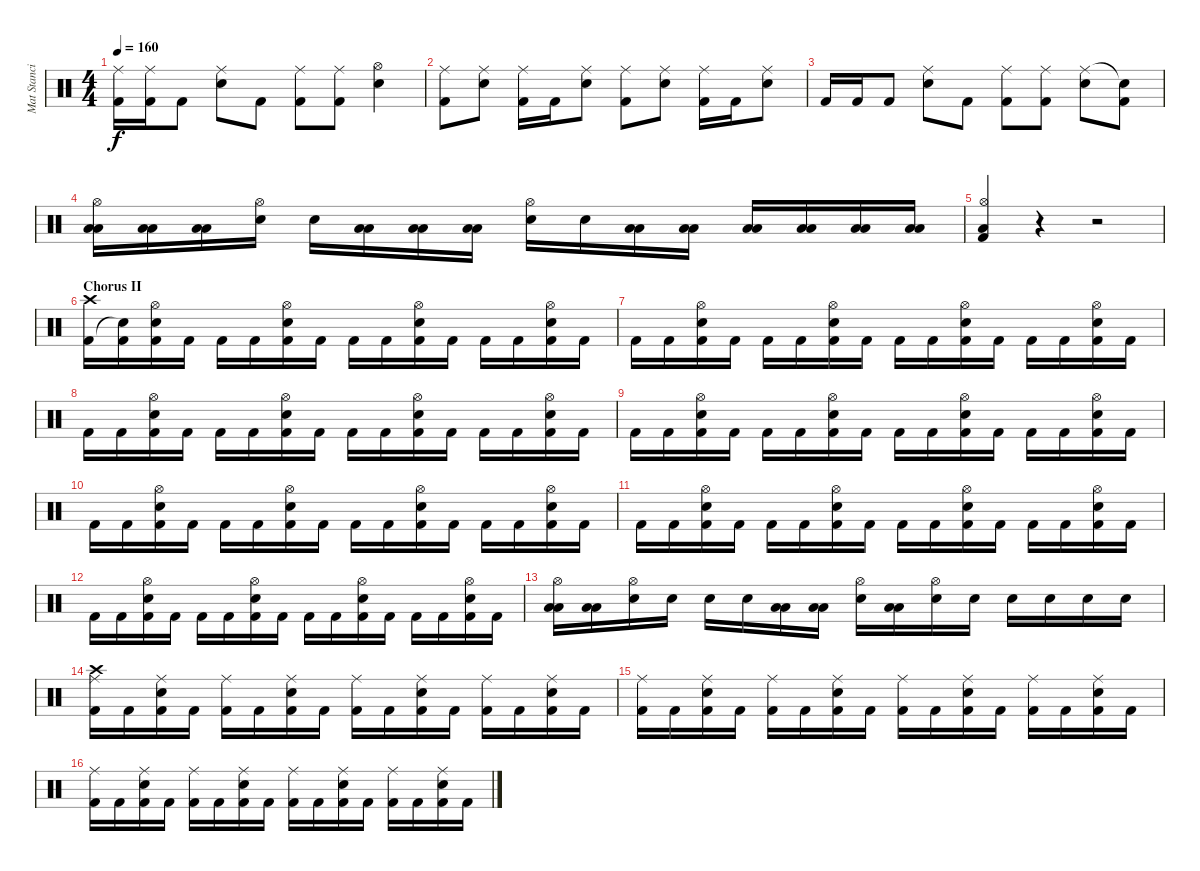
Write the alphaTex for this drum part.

\track ("Mat Stancioiu" "Mat Stanci") {instrument percussion}
\staff {score}
\articulation defaults
\ts (4 4)
\tempo 160
\clef neutral
\ks c
("Kick (hit) 2" "Ride (middle)").16{dy f} ("Kick (hit) 2" "Ride (middle)").16 "Kick (hit) 2".8 ("Electric Snare (hit)" "Ride (middle)").8 "Kick (hit) 2".8 ("Kick (hit) 2" "Ride (middle)").8 ("Kick (hit) 2" "Ride (middle)").8 ("Electric Snare (hit)" "Hi-Hat (open)").4 |
("Kick (hit) 2" "Ride (middle)").8 ("Electric Snare (hit)" "Ride (middle)").8 ("Kick (hit) 2" "Ride (middle)").16 "Kick (hit) 2".16 ("Electric Snare (hit)" "Ride (middle)").8 ("Kick (hit) 2" "Ride (middle)").8 ("Electric Snare (hit)" "Ride (middle)").8 ("Kick (hit) 2" "Ride (middle)").16 "Kick (hit) 2".16 ("Electric Snare (hit)" "Ride (middle)").8 |
"Kick (hit) 2".16 "Kick (hit) 2".16 "Kick (hit) 2".8 ("Electric Snare (hit)" "Ride (middle)").8 "Kick (hit) 2".8 ("Kick (hit) 2" "Ride (middle)").8 ("Kick (hit) 2" "Ride (middle)").8 ("Electric Snare (hit)" "Ride (middle)").8 ("Kick (hit) 2" "Snare (hit)"{t}).8 |
("Low Tom (hit)" "Low Tom (hit)" "Hi-Hat (open)").16 ("Low Tom (hit)" "Low Tom (hit)").16 ("Low Tom (hit)" "Low Tom (hit)").16 ("Electric Snare (hit)" "Hi-Hat (open)").16 "Electric Snare (hit)".16 ("Low Tom (hit)" "Low Tom (hit)").16 ("Low Tom (hit)" "Low Tom (hit)").16 ("Low Tom (hit)" "Low Tom (hit)").16 ("Electric Snare (hit)" "Hi-Hat (open)").16 "Electric Snare (hit)".16 ("Low Tom (hit)" "Low Tom (hit)").16 ("Low Tom (hit)" "Low Tom (hit)").16 ("Low Floor Tom (hit)" "Low Floor Tom (hit)").16 ("Low Floor Tom (hit)" "Low Floor Tom (hit)").16 ("Low Floor Tom (hit)" "Low Floor Tom (hit)").16 ("Low Floor Tom (hit)" "Low Floor Tom (hit)").16 |
("Kick (hit) 2" "Low Floor Tom (hit)" "Hi-Hat (open)").4 r.4 r.2 |
\section ("" "Chorus II")
("Crash high (hit)" "Kick (hit) 2").16 ("Kick (hit) 2" "Snare (hit)"{t}).16 ("Electric Snare (hit)" "Kick (hit) 2" "Hi-Hat (open)").16 "Kick (hit) 2".16 "Kick (hit) 2".16 "Kick (hit) 2".16 ("Electric Snare (hit)" "Kick (hit) 2" "Hi-Hat (open)").16 "Kick (hit) 2".16 "Kick (hit) 2".16 "Kick (hit) 2".16 ("Electric Snare (hit)" "Kick (hit) 2" "Hi-Hat (open)").16 "Kick (hit) 2".16 "Kick (hit) 2".16 "Kick (hit) 2".16 ("Electric Snare (hit)" "Kick (hit) 2" "Hi-Hat (open)").16 "Kick (hit) 2".16 |
"Kick (hit) 2".16 "Kick (hit) 2".16 ("Electric Snare (hit)" "Kick (hit) 2" "Hi-Hat (open)").16 "Kick (hit) 2".16 "Kick (hit) 2".16 "Kick (hit) 2".16 ("Electric Snare (hit)" "Kick (hit) 2" "Hi-Hat (open)").16 "Kick (hit) 2".16 "Kick (hit) 2".16 "Kick (hit) 2".16 ("Electric Snare (hit)" "Kick (hit) 2" "Hi-Hat (open)").16 "Kick (hit) 2".16 "Kick (hit) 2".16 "Kick (hit) 2".16 ("Electric Snare (hit)" "Kick (hit) 2" "Hi-Hat (open)").16 "Kick (hit) 2".16 |
"Kick (hit) 2".16 "Kick (hit) 2".16 ("Electric Snare (hit)" "Kick (hit) 2" "Hi-Hat (open)").16 "Kick (hit) 2".16 "Kick (hit) 2".16 "Kick (hit) 2".16 ("Electric Snare (hit)" "Kick (hit) 2" "Hi-Hat (open)").16 "Kick (hit) 2".16 "Kick (hit) 2".16 "Kick (hit) 2".16 ("Electric Snare (hit)" "Kick (hit) 2" "Hi-Hat (open)").16 "Kick (hit) 2".16 "Kick (hit) 2".16 "Kick (hit) 2".16 ("Electric Snare (hit)" "Kick (hit) 2" "Hi-Hat (open)").16 "Kick (hit) 2".16 |
"Kick (hit) 2".16 "Kick (hit) 2".16 ("Electric Snare (hit)" "Kick (hit) 2" "Hi-Hat (open)").16 "Kick (hit) 2".16 "Kick (hit) 2".16 "Kick (hit) 2".16 ("Electric Snare (hit)" "Kick (hit) 2" "Hi-Hat (open)").16 "Kick (hit) 2".16 "Kick (hit) 2".16 "Kick (hit) 2".16 ("Electric Snare (hit)" "Kick (hit) 2" "Hi-Hat (open)").16 "Kick (hit) 2".16 "Kick (hit) 2".16 "Kick (hit) 2".16 ("Electric Snare (hit)" "Kick (hit) 2" "Hi-Hat (open)").16 "Kick (hit) 2".16 |
"Kick (hit) 2".16 "Kick (hit) 2".16 ("Electric Snare (hit)" "Kick (hit) 2" "Hi-Hat (open)").16 "Kick (hit) 2".16 "Kick (hit) 2".16 "Kick (hit) 2".16 ("Electric Snare (hit)" "Kick (hit) 2" "Hi-Hat (open)").16 "Kick (hit) 2".16 "Kick (hit) 2".16 "Kick (hit) 2".16 ("Electric Snare (hit)" "Kick (hit) 2" "Hi-Hat (open)").16 "Kick (hit) 2".16 "Kick (hit) 2".16 "Kick (hit) 2".16 ("Electric Snare (hit)" "Kick (hit) 2" "Hi-Hat (open)").16 "Kick (hit) 2".16 |
"Kick (hit) 2".16 "Kick (hit) 2".16 ("Electric Snare (hit)" "Kick (hit) 2" "Hi-Hat (open)").16 "Kick (hit) 2".16 "Kick (hit) 2".16 "Kick (hit) 2".16 ("Electric Snare (hit)" "Kick (hit) 2" "Hi-Hat (open)").16 "Kick (hit) 2".16 "Kick (hit) 2".16 "Kick (hit) 2".16 ("Electric Snare (hit)" "Kick (hit) 2" "Hi-Hat (open)").16 "Kick (hit) 2".16 "Kick (hit) 2".16 "Kick (hit) 2".16 ("Electric Snare (hit)" "Kick (hit) 2" "Hi-Hat (open)").16 "Kick (hit) 2".16 |
"Kick (hit) 2".16 "Kick (hit) 2".16 ("Electric Snare (hit)" "Kick (hit) 2" "Hi-Hat (open)").16 "Kick (hit) 2".16 "Kick (hit) 2".16 "Kick (hit) 2".16 ("Electric Snare (hit)" "Kick (hit) 2" "Hi-Hat (open)").16 "Kick (hit) 2".16 "Kick (hit) 2".16 "Kick (hit) 2".16 ("Electric Snare (hit)" "Kick (hit) 2" "Hi-Hat (open)").16 "Kick (hit) 2".16 "Kick (hit) 2".16 "Kick (hit) 2".16 ("Electric Snare (hit)" "Kick (hit) 2" "Hi-Hat (open)").16 "Kick (hit) 2".16 |
("Low Tom (hit)" "Low Tom (hit)" "Hi-Hat (open)").16 ("Low Tom (hit)" "Low Tom (hit)").16 ("Electric Snare (hit)" "Hi-Hat (open)").16 "Electric Snare (hit)".16 "Electric Snare (hit)".16 "Electric Snare (hit)".16 ("Low Tom (hit)" "Low Tom (hit)").16 ("Low Tom (hit)" "Low Tom (hit)").16 ("Electric Snare (hit)" "Hi-Hat (open)").16 ("Low Tom (hit)" "Low Tom (hit)").16 ("Electric Snare (hit)" "Hi-Hat (open)").16 "Electric Snare (hit)".16 "Electric Snare (hit)".16 "Electric Snare (hit)".16 "Electric Snare (hit)".16 "Electric Snare (hit)".16 |
("Crash high (hit)" "Kick (hit) 2" "Ride (middle)").16 "Kick (hit) 2".16 ("Electric Snare (hit)" "Kick (hit) 2" "Ride (middle)").16 "Kick (hit) 2".16 ("Kick (hit) 2" "Ride (middle)").16 "Kick (hit) 2".16 ("Electric Snare (hit)" "Kick (hit) 2" "Ride (middle)").16 "Kick (hit) 2".16 ("Kick (hit) 2" "Ride (middle)").16 "Kick (hit) 2".16 ("Electric Snare (hit)" "Kick (hit) 2" "Ride (middle)").16 "Kick (hit) 2".16 ("Kick (hit) 2" "Ride (middle)").16 "Kick (hit) 2".16 ("Electric Snare (hit)" "Kick (hit) 2" "Ride (middle)").16 "Kick (hit) 2".16 |
("Kick (hit) 2" "Ride (middle)").16 "Kick (hit) 2".16 ("Electric Snare (hit)" "Kick (hit) 2" "Ride (middle)").16 "Kick (hit) 2".16 ("Kick (hit) 2" "Ride (middle)").16 "Kick (hit) 2".16 ("Electric Snare (hit)" "Kick (hit) 2" "Ride (middle)").16 "Kick (hit) 2".16 ("Kick (hit) 2" "Ride (middle)").16 "Kick (hit) 2".16 ("Electric Snare (hit)" "Kick (hit) 2" "Ride (middle)").16 "Kick (hit) 2".16 ("Kick (hit) 2" "Ride (middle)").16 "Kick (hit) 2".16 ("Electric Snare (hit)" "Kick (hit) 2" "Ride (middle)").16 "Kick (hit) 2".16 |
("Kick (hit) 2" "Ride (middle)").16 "Kick (hit) 2".16 ("Electric Snare (hit)" "Kick (hit) 2" "Ride (middle)").16 "Kick (hit) 2".16 ("Kick (hit) 2" "Ride (middle)").16 "Kick (hit) 2".16 ("Electric Snare (hit)" "Kick (hit) 2" "Ride (middle)").16 "Kick (hit) 2".16 ("Kick (hit) 2" "Ride (middle)").16 "Kick (hit) 2".16 ("Electric Snare (hit)" "Kick (hit) 2" "Ride (middle)").16 "Kick (hit) 2".16 ("Kick (hit) 2" "Ride (middle)").16 "Kick (hit) 2".16 ("Electric Snare (hit)" "Kick (hit) 2" "Ride (middle)").16 "Kick (hit) 2".16
